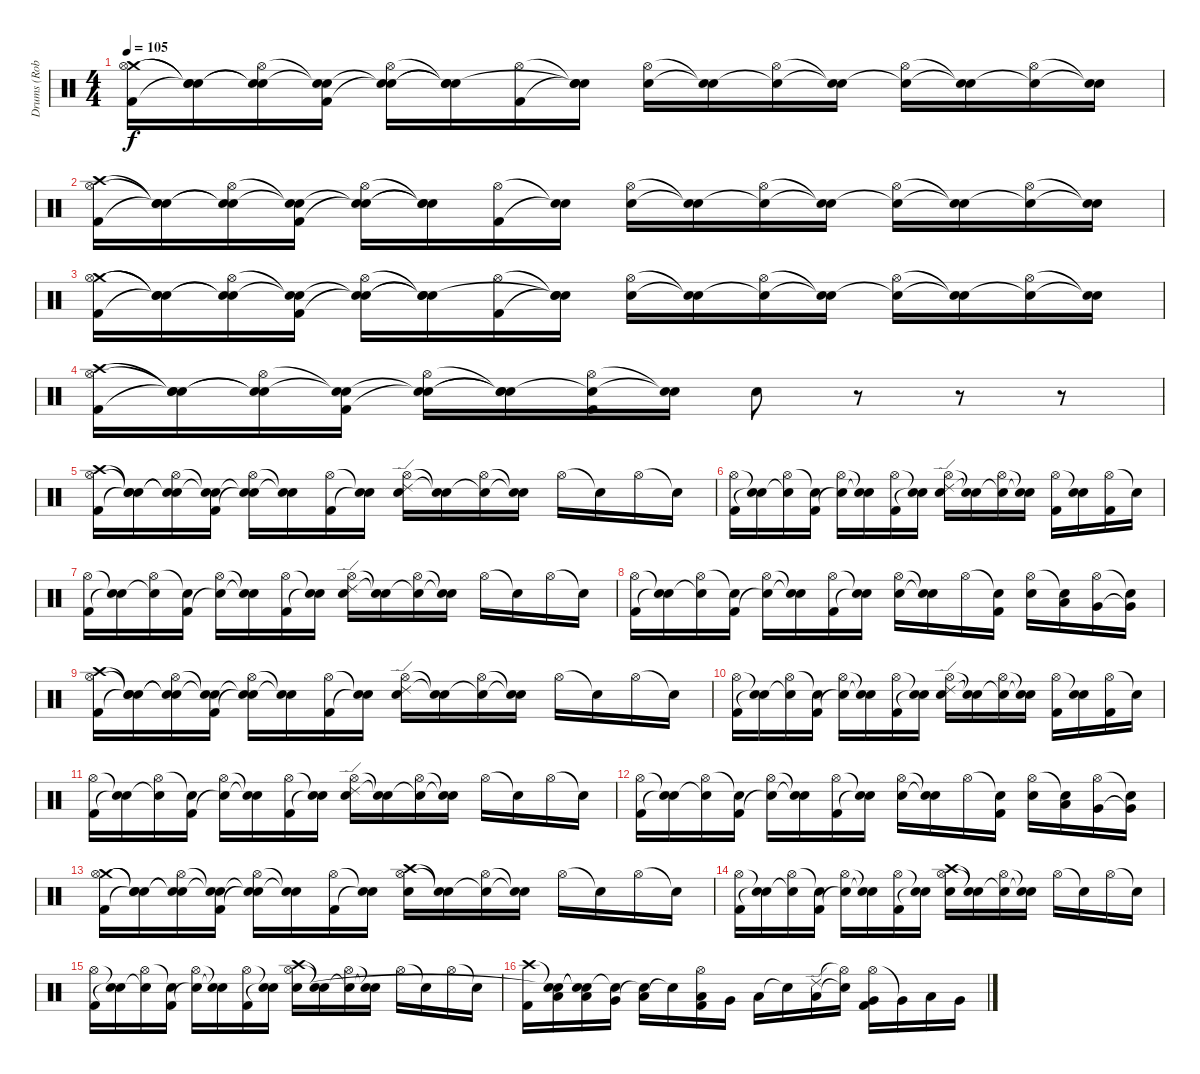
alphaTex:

\track ("Drums (Rob Bourdon)" "Drums (Rob") {instrument percussion}
\staff {score}
\articulation defaults
\ts (4 4)
\tempo 105
\clef neutral
\ks c
("Crash medium (hit)" "Hi-Hat (open)" "Kick (hit) 2").16{dy f} ("Snare (hit)"{t} "Snare (hit)"{t} "Snare (hit)"{t}).16 ("Snare (hit)"{t} "Hi-Hat (open)" "Snare (hit)"{t}).16 ("Snare (hit)"{t} "Snare (hit)"{t} "Kick (hit) 2").16 ("Snare (hit)"{t} "Hi-Hat (open)" "Snare (hit)"{t}).16 ("Snare (hit)"{t} "Snare (hit)"{t} "Snare (hit)"{t}).16 ("Hi-Hat (open)" "Kick (hit) 2").16 ("Snare (hit)"{t} "Snare (hit)"{t} "Snare (hit)"{t}).16 ("Hi-Hat (open)" "Electric Snare (hit)").16 ("Snare (hit)"{t} "Snare (hit)"{t}).16 ("Hi-Hat (open)" "Snare (hit)"{t}).16 ("Snare (hit)"{t} "Snare (hit)"{t}).16 ("Hi-Hat (open)" "Snare (hit)"{t}).16 ("Snare (hit)"{t} "Snare (hit)"{t}).16 ("Hi-Hat (open)" "Snare (hit)"{t}).16 ("Snare (hit)"{t} "Snare (hit)"{t}).16 |
("Crash high (hit)" "Hi-Hat (open)" "Kick (hit) 2").16 ("Snare (hit)"{t} "Snare (hit)"{t} "Snare (hit)"{t}).16 ("Snare (hit)"{t} "Hi-Hat (open)" "Snare (hit)"{t}).16 ("Snare (hit)"{t} "Snare (hit)"{t} "Kick (hit) 2").16 ("Snare (hit)"{t} "Hi-Hat (open)" "Snare (hit)"{t}).16 ("Snare (hit)"{t} "Snare (hit)"{t} "Snare (hit)"{t}).16 ("Hi-Hat (open)" "Kick (hit) 2").16 ("Snare (hit)"{t} "Snare (hit)"{t}).16 ("Hi-Hat (open)" "Electric Snare (hit)").16 ("Snare (hit)"{t} "Snare (hit)"{t}).16 ("Hi-Hat (open)" "Snare (hit)"{t}).16 ("Snare (hit)"{t} "Snare (hit)"{t}).16 ("Hi-Hat (open)" "Snare (hit)"{t}).16 ("Snare (hit)"{t} "Snare (hit)"{t}).16 ("Hi-Hat (open)" "Snare (hit)"{t}).16 ("Snare (hit)"{t} "Snare (hit)"{t}).16 |
("Crash medium (hit)" "Hi-Hat (open)" "Kick (hit) 2").16 ("Snare (hit)"{t} "Snare (hit)"{t} "Snare (hit)"{t}).16 ("Snare (hit)"{t} "Hi-Hat (open)" "Snare (hit)"{t}).16 ("Snare (hit)"{t} "Snare (hit)"{t} "Kick (hit) 2").16 ("Snare (hit)"{t} "Hi-Hat (open)" "Snare (hit)"{t}).16 ("Snare (hit)"{t} "Snare (hit)"{t} "Snare (hit)"{t}).16 ("Hi-Hat (open)" "Kick (hit) 2").16 ("Snare (hit)"{t} "Snare (hit)"{t} "Snare (hit)"{t}).16 ("Hi-Hat (open)" "Electric Snare (hit)").16 ("Snare (hit)"{t} "Snare (hit)"{t}).16 ("Hi-Hat (open)" "Snare (hit)"{t}).16 ("Snare (hit)"{t} "Snare (hit)"{t}).16 ("Hi-Hat (open)" "Snare (hit)"{t}).16 ("Snare (hit)"{t} "Snare (hit)"{t}).16 ("Hi-Hat (open)" "Snare (hit)"{t}).16 ("Snare (hit)"{t} "Snare (hit)"{t}).16 |
("Crash high (hit)" "Hi-Hat (open)" "Kick (hit) 2").16 ("Snare (hit)"{t} "Snare (hit)"{t} "Snare (hit)"{t}).16 ("Snare (hit)"{t} "Hi-Hat (open)" "Snare (hit)"{t}).16 ("Snare (hit)"{t} "Snare (hit)"{t} "Kick (hit) 2").16 ("Snare (hit)"{t} "Hi-Hat (open)" "Snare (hit)"{t}).16 ("Snare (hit)"{t} "Snare (hit)"{t} "Snare (hit)"{t}).16 ("Snare (hit)"{t} "Hi-Hat (open)" "Kick (hit) 2").16 ("Snare (hit)"{t} "Snare (hit)"{t}).16 "Electric Snare (hit)".8 r.8 r.8 r.8 |
("Crash high (hit)" "Hi-Hat (open)" "Kick (hit) 2").16 ("Snare (hit)"{t} "Snare (hit)"{t} "Snare (hit)"{t}).16 ("Snare (hit)"{t} "Hi-Hat (open)" "Snare (hit)"{t}).16 ("Snare (hit)"{t} "Snare (hit)"{t} "Kick (hit) 2").16 ("Snare (hit)"{t} "Hi-Hat (open)" "Snare (hit)"{t}).16 ("Snare (hit)"{t} "Snare (hit)"{t}).16 ("Hi-Hat (open)" "Kick (hit) 2").16 ("Snare (hit)"{t} "Snare (hit)"{t}).16 ("Ride (edge) 2" "Hi-Hat (open)" "Electric Snare (hit)").16 ("Snare (hit)"{t} "Snare (hit)"{t}).16 ("Hi-Hat (open)" "Snare (hit)"{t}).16 ("Snare (hit)"{t} "Snare (hit)"{t}).16 "Hi-Hat (open)".16 "Snare (hit)"{t}.16 "Hi-Hat (open)".16 "Snare (hit)"{t}.16 |
("Hi-Hat (open)" "Kick (hit) 2").16 ("Snare (hit)"{t} "Snare (hit)"{t}).16 ("Hi-Hat (open)" "Snare (hit)"{t}).16 ("Snare (hit)"{t} "Kick (hit) 2").16 ("Hi-Hat (open)" "Snare (hit)"{t}).16 ("Snare (hit)"{t} "Snare (hit)"{t}).16 ("Hi-Hat (open)" "Kick (hit) 2").16 ("Snare (hit)"{t} "Snare (hit)"{t}).16 ("Ride (edge) 2" "Hi-Hat (open)" "Electric Snare (hit)").16 ("Snare (hit)"{t} "Snare (hit)"{t}).16 ("Hi-Hat (open)" "Snare (hit)"{t}).16 ("Snare (hit)"{t} "Snare (hit)"{t}).16 ("Hi-Hat (open)" "Kick (hit) 2").16 ("Snare (hit)"{t} "Electric Snare (hit)").16 ("Hi-Hat (open)" "Kick (hit) 2").16 "Snare (hit)"{t}.16 |
("Hi-Hat (open)" "Kick (hit) 2").16 ("Snare (hit)"{t} "Snare (hit)"{t}).16 ("Hi-Hat (open)" "Snare (hit)"{t}).16 ("Snare (hit)"{t} "Kick (hit) 2").16 ("Hi-Hat (open)" "Snare (hit)"{t}).16 ("Snare (hit)"{t} "Snare (hit)"{t}).16 ("Hi-Hat (open)" "Kick (hit) 2").16 ("Snare (hit)"{t} "Snare (hit)"{t}).16 ("Ride (edge) 2" "Hi-Hat (open)" "Electric Snare (hit)").16 ("Snare (hit)"{t} "Snare (hit)"{t}).16 ("Hi-Hat (open)" "Snare (hit)"{t}).16 ("Snare (hit)"{t} "Snare (hit)"{t}).16 "Hi-Hat (open)".16 "Snare (hit)"{t}.16 "Hi-Hat (open)".16 "Snare (hit)"{t}.16 |
("Hi-Hat (open)" "Kick (hit) 2").16 ("Snare (hit)"{t} "Snare (hit)"{t}).16 ("Hi-Hat (open)" "Snare (hit)"{t}).16 ("Snare (hit)"{t} "Kick (hit) 2").16 ("Hi-Hat (open)" "Snare (hit)"{t}).16 ("Snare (hit)"{t} "Snare (hit)"{t}).16 ("Hi-Hat (open)" "Kick (hit) 2").16 ("Snare (hit)"{t} "Snare (hit)"{t}).16 ("Hi-Hat (open)" "Electric Snare (hit)").16 ("Snare (hit)"{t} "Electric Snare (hit)"{t}).16 "Hi-Hat (open)".16 ("Snare (hit)"{t} "Kick (hit) 2").16 ("Hi-Hat (open)" "Electric Snare (hit)").16 ("Snare (hit)"{t} "Low Tom (hit)").16 ("Hi-Hat (open)" "Very Low Tom (hit)").16 ("Snare (hit)"{t} "Very Low Tom (hit)"{t}).16 |
("Crash high (hit)" "Hi-Hat (open)" "Kick (hit) 2").16 ("Snare (hit)"{t} "Snare (hit)"{t} "Snare (hit)"{t}).16 ("Snare (hit)"{t} "Hi-Hat (open)" "Snare (hit)"{t}).16 ("Snare (hit)"{t} "Snare (hit)"{t} "Kick (hit) 2").16 ("Snare (hit)"{t} "Hi-Hat (open)" "Snare (hit)"{t}).16 ("Snare (hit)"{t} "Snare (hit)"{t}).16 ("Hi-Hat (open)" "Kick (hit) 2").16 ("Snare (hit)"{t} "Snare (hit)"{t}).16 ("Ride (edge) 2" "Hi-Hat (open)" "Electric Snare (hit)").16 ("Snare (hit)"{t} "Snare (hit)"{t}).16 ("Hi-Hat (open)" "Snare (hit)"{t}).16 ("Snare (hit)"{t} "Snare (hit)"{t}).16 "Hi-Hat (open)".16 "Snare (hit)"{t}.16 "Hi-Hat (open)".16 "Snare (hit)"{t}.16 |
("Hi-Hat (open)" "Kick (hit) 2").16 ("Snare (hit)"{t} "Snare (hit)"{t}).16 ("Hi-Hat (open)" "Snare (hit)"{t}).16 ("Snare (hit)"{t} "Kick (hit) 2").16 ("Hi-Hat (open)" "Snare (hit)"{t}).16 ("Snare (hit)"{t} "Snare (hit)"{t}).16 ("Hi-Hat (open)" "Kick (hit) 2").16 ("Snare (hit)"{t} "Snare (hit)"{t}).16 ("Ride (edge) 2" "Hi-Hat (open)" "Electric Snare (hit)").16 ("Snare (hit)"{t} "Snare (hit)"{t}).16 ("Hi-Hat (open)" "Snare (hit)"{t}).16 ("Snare (hit)"{t} "Snare (hit)"{t}).16 ("Hi-Hat (open)" "Kick (hit) 2").16 ("Snare (hit)"{t} "Electric Snare (hit)").16 ("Hi-Hat (open)" "Kick (hit) 2").16 "Snare (hit)"{t}.16 |
("Hi-Hat (open)" "Kick (hit) 2").16 ("Snare (hit)"{t} "Snare (hit)"{t}).16 ("Hi-Hat (open)" "Snare (hit)"{t}).16 ("Snare (hit)"{t} "Kick (hit) 2").16 ("Hi-Hat (open)" "Snare (hit)"{t}).16 ("Snare (hit)"{t} "Snare (hit)"{t}).16 ("Hi-Hat (open)" "Kick (hit) 2").16 ("Snare (hit)"{t} "Snare (hit)"{t}).16 ("Ride (edge) 2" "Hi-Hat (open)" "Electric Snare (hit)").16 ("Snare (hit)"{t} "Snare (hit)"{t}).16 ("Hi-Hat (open)" "Snare (hit)"{t}).16 ("Snare (hit)"{t} "Snare (hit)"{t}).16 "Hi-Hat (open)".16 "Snare (hit)"{t}.16 "Hi-Hat (open)".16 "Snare (hit)"{t}.16 |
("Hi-Hat (open)" "Kick (hit) 2").16 ("Snare (hit)"{t} "Snare (hit)"{t}).16 ("Hi-Hat (open)" "Snare (hit)"{t}).16 ("Snare (hit)"{t} "Kick (hit) 2").16 ("Hi-Hat (open)" "Snare (hit)"{t}).16 ("Snare (hit)"{t} "Snare (hit)"{t}).16 ("Hi-Hat (open)" "Kick (hit) 2").16 ("Snare (hit)"{t} "Snare (hit)"{t}).16 ("Hi-Hat (open)" "Electric Snare (hit)").16 ("Snare (hit)"{t} "Electric Snare (hit)"{t}).16 "Hi-Hat (open)".16 ("Snare (hit)"{t} "Kick (hit) 2").16 ("Hi-Hat (open)" "Electric Snare (hit)").16 ("Snare (hit)"{t} "Low Tom (hit)").16 ("Hi-Hat (open)" "Very Low Tom (hit)").16 ("Snare (hit)"{t} "Very Low Tom (hit)"{t}).16 |
("Crash medium (hit)" "Hi-Hat (open)" "Kick (hit) 2").16 ("Snare (hit)"{t} "Snare (hit)"{t} "Snare (hit)"{t}).16 ("Snare (hit)"{t} "Hi-Hat (open)" "Snare (hit)"{t}).16 ("Snare (hit)"{t} "Snare (hit)"{t} "Kick (hit) 2").16 ("Snare (hit)"{t} "Hi-Hat (open)" "Snare (hit)"{t}).16 ("Snare (hit)"{t} "Snare (hit)"{t}).16 ("Hi-Hat (open)" "Kick (hit) 2").16 ("Snare (hit)"{t} "Snare (hit)"{t}).16 ("Crash high (hit)" "Hi-Hat (open)" "Electric Snare (hit)").16 ("Snare (hit)"{t} "Snare (hit)"{t}).16 ("Hi-Hat (open)" "Snare (hit)"{t}).16 ("Snare (hit)"{t} "Snare (hit)"{t}).16 "Hi-Hat (open)".16 "Snare (hit)"{t}.16 "Hi-Hat (open)".16 "Snare (hit)"{t}.16 |
("Hi-Hat (open)" "Kick (hit) 2").16 ("Snare (hit)"{t} "Snare (hit)"{t}).16 ("Hi-Hat (open)" "Snare (hit)"{t}).16 ("Snare (hit)"{t} "Kick (hit) 2").16 ("Hi-Hat (open)" "Snare (hit)"{t}).16 ("Snare (hit)"{t} "Snare (hit)"{t}).16 ("Hi-Hat (open)" "Kick (hit) 2").16 ("Snare (hit)"{t} "Snare (hit)"{t}).16 ("Crash high (hit)" "Hi-Hat (open)" "Electric Snare (hit)").16 ("Snare (hit)"{t} "Snare (hit)"{t}).16 ("Hi-Hat (open)" "Snare (hit)"{t}).16 ("Snare (hit)"{t} "Snare (hit)"{t}).16 "Hi-Hat (open)".16 "Snare (hit)"{t}.16 "Hi-Hat (open)".16 "Snare (hit)"{t}.16 |
("Hi-Hat (open)" "Kick (hit) 2").16 ("Snare (hit)"{t} "Snare (hit)"{t}).16 ("Hi-Hat (open)" "Snare (hit)"{t}).16 ("Snare (hit)"{t} "Kick (hit) 2").16 ("Hi-Hat (open)" "Snare (hit)"{t}).16 ("Snare (hit)"{t} "Snare (hit)"{t}).16 ("Hi-Hat (open)" "Kick (hit) 2").16 ("Snare (hit)"{t} "Snare (hit)"{t}).16 ("Crash high (hit)" "Hi-Hat (open)" "Electric Snare (hit)").16 ("Snare (hit)"{t} "Snare (hit)"{t}).16 ("Hi-Hat (open)" "Snare (hit)"{t}).16 ("Snare (hit)"{t} "Snare (hit)"{t}).16 "Hi-Hat (open)".16 "Snare (hit)"{t}.16 "Hi-Hat (open)".16 "Snare (hit)"{t}.16 |
("Crash high (hit)" "Kick (hit) 2").16 ("Snare (hit)"{t} "Low Tom (hit)" "Snare (hit)"{t}).16 ("Snare (hit)"{t} "Low Tom (hit)" "Snare (hit)"{t}).16 ("Snare (hit)"{t} "Very Low Tom (hit)").16 ("Low Floor Tom (hit)" "Snare (hit)"{t}).16 "Snare (hit)"{t}.16 ("Hi-Hat (open)" "Low Tom (hit)" "Kick (hit) 2").16 "Very Low Tom (hit)".16 "Low Floor Tom (hit)".16 "Electric Snare (hit)"{t}.16 ("Ride (edge) 2" "Low Tom (hit)").16 ("Hi-Hat (open)"{t} "Snare (hit)"{t}).16 ("Hi-Hat (open)" "Very Low Tom (hit)" "Kick (hit) 2").16 "Very Low Tom (hit)"{t}.16 "Low Tom (hit)".16 "Very Low Tom (hit)".16
